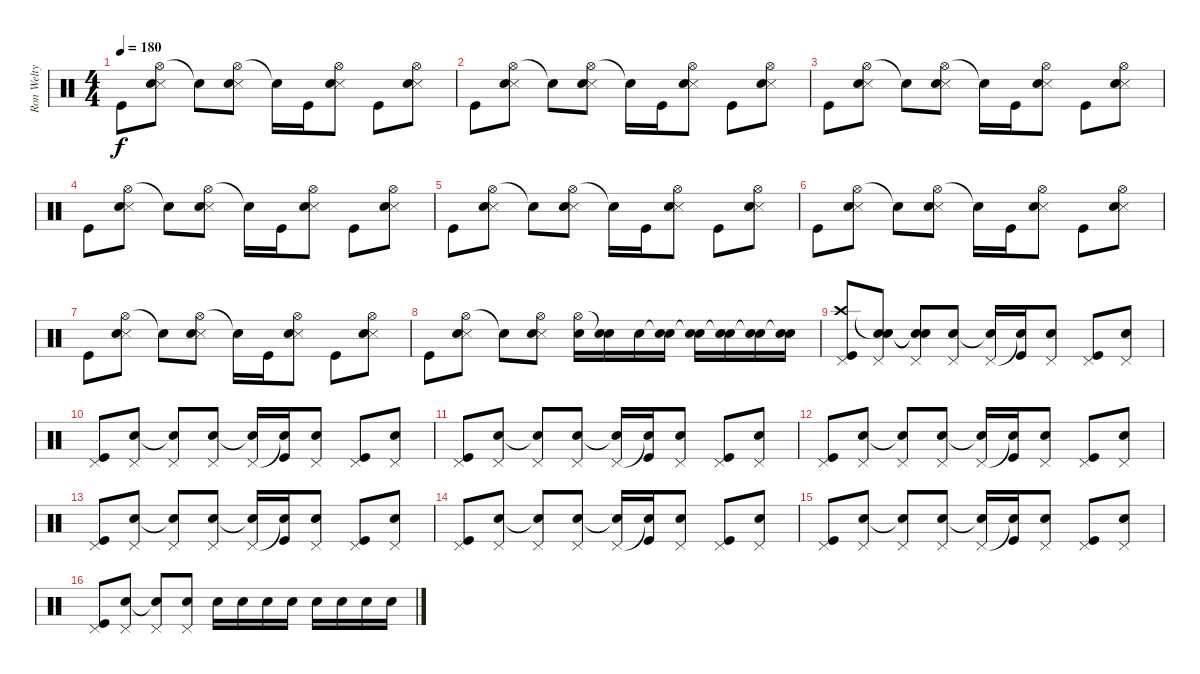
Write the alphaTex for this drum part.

\track ("Ron Welty" "Ron Welty") {instrument percussion}
\staff {score}
\articulation defaults
\ts (4 4)
\tempo 180
\clef neutral
\ks c "Kick (hit)".8{dy f}
("Hi-Hat (open)" "Metronome (hit)" "Electric Snare (hit)").8 "Snare (hit)"{t}.8 ("Hi-Hat (open)" "Metronome (hit)" "Electric Snare (hit)").8 "Snare (hit)"{t}.16 "Kick (hit)".16 ("Hi-Hat (open)" "Metronome (hit)" "Electric Snare (hit)").8 "Kick (hit)".8 ("Hi-Hat (open)" "Metronome (hit)" "Electric Snare (hit)").8 |
"Kick (hit)".8 ("Hi-Hat (open)" "Metronome (hit)" "Electric Snare (hit)").8 "Snare (hit)"{t}.8 ("Hi-Hat (open)" "Metronome (hit)" "Electric Snare (hit)").8 "Snare (hit)"{t}.16 "Kick (hit)".16 ("Hi-Hat (open)" "Metronome (hit)" "Electric Snare (hit)").8 "Kick (hit)".8 ("Hi-Hat (open)" "Metronome (hit)" "Electric Snare (hit)").8 |
"Kick (hit)".8 ("Hi-Hat (open)" "Metronome (hit)" "Electric Snare (hit)").8 "Snare (hit)"{t}.8 ("Hi-Hat (open)" "Metronome (hit)" "Electric Snare (hit)").8 "Snare (hit)"{t}.16 "Kick (hit)".16 ("Hi-Hat (open)" "Metronome (hit)" "Electric Snare (hit)").8 "Kick (hit)".8 ("Hi-Hat (open)" "Metronome (hit)" "Electric Snare (hit)").8 |
"Kick (hit)".8 ("Hi-Hat (open)" "Metronome (hit)" "Electric Snare (hit)").8 "Snare (hit)"{t}.8 ("Hi-Hat (open)" "Metronome (hit)" "Electric Snare (hit)").8 "Snare (hit)"{t}.16 "Kick (hit)".16 ("Hi-Hat (open)" "Metronome (hit)" "Electric Snare (hit)").8 "Kick (hit)".8 ("Hi-Hat (open)" "Metronome (hit)" "Electric Snare (hit)").8 |
"Kick (hit)".8 ("Hi-Hat (open)" "Metronome (hit)" "Electric Snare (hit)").8 "Snare (hit)"{t}.8 ("Hi-Hat (open)" "Metronome (hit)" "Electric Snare (hit)").8 "Snare (hit)"{t}.16 "Kick (hit)".16 ("Hi-Hat (open)" "Metronome (hit)" "Electric Snare (hit)").8 "Kick (hit)".8 ("Hi-Hat (open)" "Metronome (hit)" "Electric Snare (hit)").8 |
"Kick (hit)".8 ("Hi-Hat (open)" "Metronome (hit)" "Electric Snare (hit)").8 "Snare (hit)"{t}.8 ("Hi-Hat (open)" "Metronome (hit)" "Electric Snare (hit)").8 "Snare (hit)"{t}.16 "Kick (hit)".16 ("Hi-Hat (open)" "Metronome (hit)" "Electric Snare (hit)").8 "Kick (hit)".8 ("Hi-Hat (open)" "Metronome (hit)" "Electric Snare (hit)").8 |
"Kick (hit)".8 ("Hi-Hat (open)" "Metronome (hit)" "Electric Snare (hit)").8 "Snare (hit)"{t}.8 ("Hi-Hat (open)" "Metronome (hit)" "Electric Snare (hit)").8 "Snare (hit)"{t}.16 "Kick (hit)".16 ("Hi-Hat (open)" "Metronome (hit)" "Electric Snare (hit)").8 "Kick (hit)".8 ("Hi-Hat (open)" "Metronome (hit)" "Electric Snare (hit)").8 |
"Kick (hit)".8 ("Hi-Hat (open)" "Metronome (hit)" "Electric Snare (hit)").8 "Snare (hit)"{t}.8 ("Hi-Hat (open)" "Metronome (hit)" "Electric Snare (hit)").8 ("Hi-Hat (open)" "Electric Snare (hit)").16 ("Snare (hit)"{t} "Electric Snare (hit)").16 "Electric Snare (hit)".16 ("Snare (hit)"{t} "Electric Snare (hit)").16 ("Snare (hit)"{t} "Electric Snare (hit)").16 ("Snare (hit)"{t} "Electric Snare (hit)").16 ("Snare (hit)"{t} "Electric Snare (hit)").16 ("Snare (hit)"{t} "Electric Snare (hit)").16 |
("Crash high (hit)" "Pedal Hi-Hat (hit)" "Kick (hit)").8 ("Snare (hit)"{t} "Pedal Hi-Hat (hit)" "Electric Snare (hit)").8 ("Snare (hit)"{t} "Pedal Hi-Hat (hit)" "Snare (hit)"{t}).8 ("Pedal Hi-Hat (hit)" "Electric Snare (hit)").8 ("Pedal Hi-Hat (hit)" "Snare (hit)"{t}).16 ("Snare (hit)"{t} "Kick (hit)").16 ("Pedal Hi-Hat (hit)" "Electric Snare (hit)").8 ("Pedal Hi-Hat (hit)" "Kick (hit)").8 ("Pedal Hi-Hat (hit)" "Electric Snare (hit)").8 |
("Pedal Hi-Hat (hit)" "Kick (hit)").8 ("Pedal Hi-Hat (hit)" "Electric Snare (hit)").8 ("Pedal Hi-Hat (hit)" "Snare (hit)"{t}).8 ("Pedal Hi-Hat (hit)" "Electric Snare (hit)").8 ("Pedal Hi-Hat (hit)" "Snare (hit)"{t}).16 ("Snare (hit)"{t} "Kick (hit)").16 ("Pedal Hi-Hat (hit)" "Electric Snare (hit)").8 ("Pedal Hi-Hat (hit)" "Kick (hit)").8 ("Pedal Hi-Hat (hit)" "Electric Snare (hit)").8 |
("Pedal Hi-Hat (hit)" "Kick (hit)").8 ("Pedal Hi-Hat (hit)" "Electric Snare (hit)").8 ("Pedal Hi-Hat (hit)" "Snare (hit)"{t}).8 ("Pedal Hi-Hat (hit)" "Electric Snare (hit)").8 ("Pedal Hi-Hat (hit)" "Snare (hit)"{t}).16 ("Snare (hit)"{t} "Kick (hit)").16 ("Pedal Hi-Hat (hit)" "Electric Snare (hit)").8 ("Pedal Hi-Hat (hit)" "Kick (hit)").8 ("Pedal Hi-Hat (hit)" "Electric Snare (hit)").8 |
("Pedal Hi-Hat (hit)" "Kick (hit)").8 ("Pedal Hi-Hat (hit)" "Electric Snare (hit)").8 ("Pedal Hi-Hat (hit)" "Snare (hit)"{t}).8 ("Pedal Hi-Hat (hit)" "Electric Snare (hit)").8 ("Pedal Hi-Hat (hit)" "Snare (hit)"{t}).16 ("Snare (hit)"{t} "Kick (hit)").16 ("Pedal Hi-Hat (hit)" "Electric Snare (hit)").8 ("Pedal Hi-Hat (hit)" "Kick (hit)").8 ("Pedal Hi-Hat (hit)" "Electric Snare (hit)").8 |
("Pedal Hi-Hat (hit)" "Kick (hit)").8 ("Pedal Hi-Hat (hit)" "Electric Snare (hit)").8 ("Pedal Hi-Hat (hit)" "Snare (hit)"{t}).8 ("Pedal Hi-Hat (hit)" "Electric Snare (hit)").8 ("Pedal Hi-Hat (hit)" "Snare (hit)"{t}).16 ("Snare (hit)"{t} "Kick (hit)").16 ("Pedal Hi-Hat (hit)" "Electric Snare (hit)").8 ("Pedal Hi-Hat (hit)" "Kick (hit)").8 ("Pedal Hi-Hat (hit)" "Electric Snare (hit)").8 |
("Pedal Hi-Hat (hit)" "Kick (hit)").8 ("Pedal Hi-Hat (hit)" "Electric Snare (hit)").8 ("Pedal Hi-Hat (hit)" "Snare (hit)"{t}).8 ("Pedal Hi-Hat (hit)" "Electric Snare (hit)").8 ("Pedal Hi-Hat (hit)" "Snare (hit)"{t}).16 ("Snare (hit)"{t} "Kick (hit)").16 ("Pedal Hi-Hat (hit)" "Electric Snare (hit)").8 ("Pedal Hi-Hat (hit)" "Kick (hit)").8 ("Pedal Hi-Hat (hit)" "Electric Snare (hit)").8 |
("Pedal Hi-Hat (hit)" "Kick (hit)").8 ("Pedal Hi-Hat (hit)" "Electric Snare (hit)").8 ("Pedal Hi-Hat (hit)" "Snare (hit)"{t}).8 ("Pedal Hi-Hat (hit)" "Electric Snare (hit)").8 ("Pedal Hi-Hat (hit)" "Snare (hit)"{t}).16 ("Snare (hit)"{t} "Kick (hit)").16 ("Pedal Hi-Hat (hit)" "Electric Snare (hit)").8 ("Pedal Hi-Hat (hit)" "Kick (hit)").8 ("Pedal Hi-Hat (hit)" "Electric Snare (hit)").8 |
("Pedal Hi-Hat (hit)" "Kick (hit)").8 ("Pedal Hi-Hat (hit)" "Electric Snare (hit)").8 ("Pedal Hi-Hat (hit)" "Snare (hit)"{t}).8 ("Pedal Hi-Hat (hit)" "Electric Snare (hit)").8 "Electric Snare (hit)".16 "Electric Snare (hit)".16 "Electric Snare (hit)".16 "Electric Snare (hit)".16 "Electric Snare (hit)".16 "Electric Snare (hit)".16 "Electric Snare (hit)".16 "Electric Snare (hit)".16
